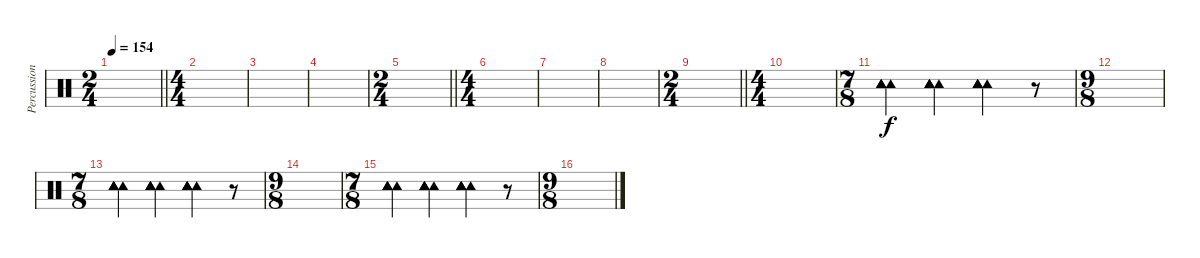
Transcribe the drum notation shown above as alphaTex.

\track ("Percussions" "Percussion") {instrument percussion}
\staff {score}
\articulation defaults
\ts (2 4)
\tempo 154
\clef neutral
\barLineRight lightlight
\ks c
|
\ts (4 4)
|
|
|
\ts (2 4)
\barLineRight lightlight
|
\ts (4 4)
|
|
|
\ts (2 4)
\barLineRight lightlight
|
\ts (4 4)
|
\ts (7 8)
("Tambourine (hit)" "Tambourine (hit)" "Tambourine (hit)" "Tambourine (hit)" "Tambourine (hit)").4 ("Tambourine (hit)" "Tambourine (hit)" "Tambourine (hit)" "Tambourine (hit)" "Tambourine (hit)").4 ("Tambourine (hit)" "Tambourine (hit)" "Tambourine (hit)" "Tambourine (hit)" "Tambourine (hit)").4 r.8 |
\ts (9 8)
|
\ts (7 8)
("Tambourine (hit)" "Tambourine (hit)" "Tambourine (hit)" "Tambourine (hit)" "Tambourine (hit)").4 ("Tambourine (hit)" "Tambourine (hit)" "Tambourine (hit)" "Tambourine (hit)" "Tambourine (hit)").4 ("Tambourine (hit)" "Tambourine (hit)" "Tambourine (hit)" "Tambourine (hit)" "Tambourine (hit)").4 r.8 |
\ts (9 8)
|
\ts (7 8)
("Tambourine (hit)" "Tambourine (hit)" "Tambourine (hit)" "Tambourine (hit)" "Tambourine (hit)").4 ("Tambourine (hit)" "Tambourine (hit)" "Tambourine (hit)" "Tambourine (hit)" "Tambourine (hit)").4 ("Tambourine (hit)" "Tambourine (hit)" "Tambourine (hit)" "Tambourine (hit)" "Tambourine (hit)").4 r.8 |
\ts (9 8)
